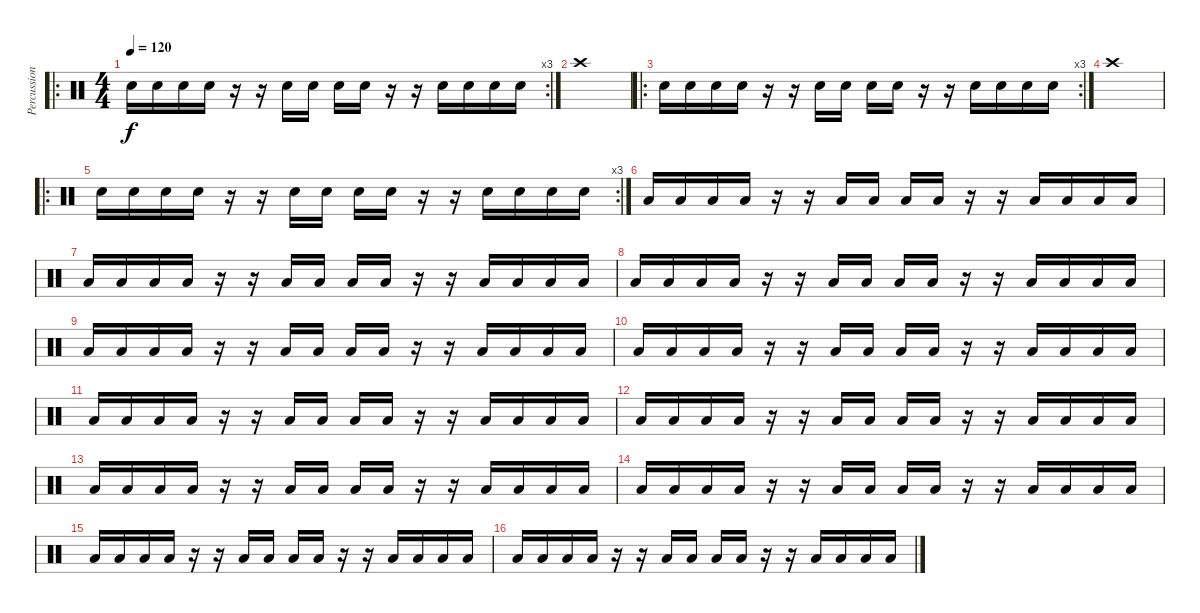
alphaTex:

\track ("Percussions" "Percussion") {instrument percussion}
\staff {score}
\articulation defaults
\ro
\rc 3
\ts (4 4)
\tempo 120
\clef neutral
\ks c "Snare (hit) 2".16{dy f} "Snare (hit) 2".16 "Snare (hit) 2".16 "Snare (hit) 2".16
r.16 r.16 "Snare (hit) 2".16 "Snare (hit) 2".16 "Snare (hit) 2".16 "Snare (hit) 2".16 r.16 r.16 "Snare (hit) 2".16 "Snare (hit) 2".16 "Snare (hit) 2".16 "Snare (hit) 2".16 |
"Crash high (hit)".1 |
\ro
\rc 3 "Snare (hit) 2".16 "Snare (hit) 2".16 "Snare (hit) 2".16 "Snare (hit) 2".16
r.16 r.16 "Snare (hit) 2".16 "Snare (hit) 2".16 "Snare (hit) 2".16 "Snare (hit) 2".16 r.16 r.16 "Snare (hit) 2".16 "Snare (hit) 2".16 "Snare (hit) 2".16 "Snare (hit) 2".16 |
"Crash high (hit)".1 |
\ro
\rc 3 "Snare (hit) 2".16 "Snare (hit) 2".16 "Snare (hit) 2".16 "Snare (hit) 2".16
r.16 r.16 "Snare (hit) 2".16 "Snare (hit) 2".16 "Snare (hit) 2".16 "Snare (hit) 2".16 r.16 r.16 "Snare (hit) 2".16 "Snare (hit) 2".16 "Snare (hit) 2".16 "Snare (hit) 2".16 |
"Low Floor Tom (hit)".16 "Low Floor Tom (hit)".16 "Low Floor Tom (hit)".16 "Low Floor Tom (hit)".16 r.16 r.16 "Low Floor Tom (hit)".16 "Low Floor Tom (hit)".16 "Low Floor Tom (hit)".16 "Low Floor Tom (hit)".16 r.16 r.16 "Low Floor Tom (hit)".16 "Low Floor Tom (hit)".16 "Low Floor Tom (hit)".16 "Low Floor Tom (hit)".16 |
"Low Floor Tom (hit)".16 "Low Floor Tom (hit)".16 "Low Floor Tom (hit)".16 "Low Floor Tom (hit)".16 r.16 r.16 "Low Floor Tom (hit)".16 "Low Floor Tom (hit)".16 "Low Floor Tom (hit)".16 "Low Floor Tom (hit)".16 r.16 r.16 "Low Floor Tom (hit)".16 "Low Floor Tom (hit)".16 "Low Floor Tom (hit)".16 "Low Floor Tom (hit)".16 |
"Low Floor Tom (hit)".16 "Low Floor Tom (hit)".16 "Low Floor Tom (hit)".16 "Low Floor Tom (hit)".16 r.16 r.16 "Low Floor Tom (hit)".16 "Low Floor Tom (hit)".16 "Low Floor Tom (hit)".16 "Low Floor Tom (hit)".16 r.16 r.16 "Low Floor Tom (hit)".16 "Low Floor Tom (hit)".16 "Low Floor Tom (hit)".16 "Low Floor Tom (hit)".16 |
"Low Floor Tom (hit)".16 "Low Floor Tom (hit)".16 "Low Floor Tom (hit)".16 "Low Floor Tom (hit)".16 r.16 r.16 "Low Floor Tom (hit)".16 "Low Floor Tom (hit)".16 "Low Floor Tom (hit)".16 "Low Floor Tom (hit)".16 r.16 r.16 "Low Floor Tom (hit)".16 "Low Floor Tom (hit)".16 "Low Floor Tom (hit)".16 "Low Floor Tom (hit)".16 |
"Low Floor Tom (hit)".16 "Low Floor Tom (hit)".16 "Low Floor Tom (hit)".16 "Low Floor Tom (hit)".16 r.16 r.16 "Low Floor Tom (hit)".16 "Low Floor Tom (hit)".16 "Low Floor Tom (hit)".16 "Low Floor Tom (hit)".16 r.16 r.16 "Low Floor Tom (hit)".16 "Low Floor Tom (hit)".16 "Low Floor Tom (hit)".16 "Low Floor Tom (hit)".16 |
"Low Floor Tom (hit)".16 "Low Floor Tom (hit)".16 "Low Floor Tom (hit)".16 "Low Floor Tom (hit)".16 r.16 r.16 "Low Floor Tom (hit)".16 "Low Floor Tom (hit)".16 "Low Floor Tom (hit)".16 "Low Floor Tom (hit)".16 r.16 r.16 "Low Floor Tom (hit)".16 "Low Floor Tom (hit)".16 "Low Floor Tom (hit)".16 "Low Floor Tom (hit)".16 |
"Low Floor Tom (hit)".16 "Low Floor Tom (hit)".16 "Low Floor Tom (hit)".16 "Low Floor Tom (hit)".16 r.16 r.16 "Low Floor Tom (hit)".16 "Low Floor Tom (hit)".16 "Low Floor Tom (hit)".16 "Low Floor Tom (hit)".16 r.16 r.16 "Low Floor Tom (hit)".16 "Low Floor Tom (hit)".16 "Low Floor Tom (hit)".16 "Low Floor Tom (hit)".16 |
"Low Floor Tom (hit)".16 "Low Floor Tom (hit)".16 "Low Floor Tom (hit)".16 "Low Floor Tom (hit)".16 r.16 r.16 "Low Floor Tom (hit)".16 "Low Floor Tom (hit)".16 "Low Floor Tom (hit)".16 "Low Floor Tom (hit)".16 r.16 r.16 "Low Floor Tom (hit)".16 "Low Floor Tom (hit)".16 "Low Floor Tom (hit)".16 "Low Floor Tom (hit)".16 |
"Low Floor Tom (hit)".16 "Low Floor Tom (hit)".16 "Low Floor Tom (hit)".16 "Low Floor Tom (hit)".16 r.16 r.16 "Low Floor Tom (hit)".16 "Low Floor Tom (hit)".16 "Low Floor Tom (hit)".16 "Low Floor Tom (hit)".16 r.16 r.16 "Low Floor Tom (hit)".16 "Low Floor Tom (hit)".16 "Low Floor Tom (hit)".16 "Low Floor Tom (hit)".16 |
"Low Floor Tom (hit)".16 "Low Floor Tom (hit)".16 "Low Floor Tom (hit)".16 "Low Floor Tom (hit)".16 r.16 r.16 "Low Floor Tom (hit)".16 "Low Floor Tom (hit)".16 "Low Floor Tom (hit)".16 "Low Floor Tom (hit)".16 r.16 r.16 "Low Floor Tom (hit)".16 "Low Floor Tom (hit)".16 "Low Floor Tom (hit)".16 "Low Floor Tom (hit)".16 |
"Low Floor Tom (hit)".16 "Low Floor Tom (hit)".16 "Low Floor Tom (hit)".16 "Low Floor Tom (hit)".16 r.16 r.16 "Low Floor Tom (hit)".16 "Low Floor Tom (hit)".16 "Low Floor Tom (hit)".16 "Low Floor Tom (hit)".16 r.16 r.16 "Low Floor Tom (hit)".16 "Low Floor Tom (hit)".16 "Low Floor Tom (hit)".16 "Low Floor Tom (hit)".16
